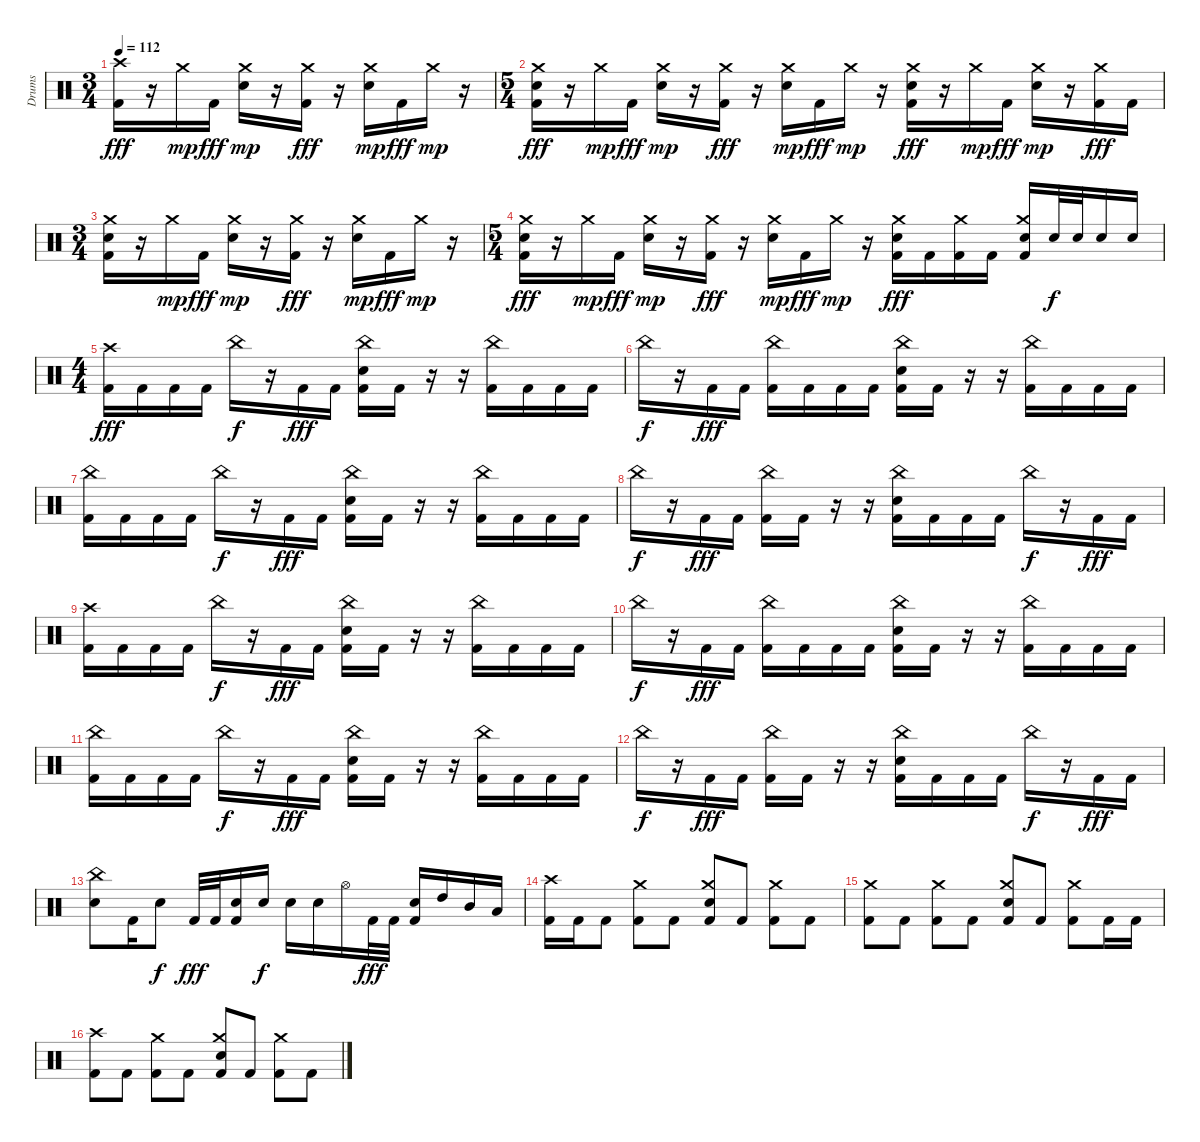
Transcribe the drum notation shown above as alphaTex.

\track ("Drums" "Drums") {instrument percussion}
\staff
\articulation defaults
\ts (3 4)
\tempo 112
\clef neutral
\ks c
("Crash high (hit)" "Kick (hit) 2").16{dy fff} r.16 "Crash medium (hit)".16{dy mp} "Kick (hit) 2".16{dy fff} ("Crash medium (hit)" "Electric Snare (hit)").16{dy mp} r.16 ("Crash medium (hit)" "Kick (hit) 2").16{dy fff} r.16 ("Crash medium (hit)" "Electric Snare (hit)").16{dy mp} "Kick (hit) 2".16{dy fff} "Crash medium (hit)".16{dy mp} r.16 |
\ts (5 4)
("Crash medium (hit)" "Electric Snare (hit)" "Kick (hit) 2").16{dy fff} r.16 "Crash medium (hit)".16{dy mp} "Kick (hit) 2".16{dy fff} ("Crash medium (hit)" "Electric Snare (hit)").16{dy mp} r.16 ("Crash medium (hit)" "Kick (hit) 2").16{dy fff} r.16 ("Crash medium (hit)" "Electric Snare (hit)").16{dy mp} "Kick (hit) 2".16{dy fff} "Crash medium (hit)".16{dy mp} r.16 ("Crash medium (hit)" "Electric Snare (hit)" "Kick (hit) 2").16{dy fff} r.16 "Crash medium (hit)".16{dy mp} "Kick (hit) 2".16{dy fff} ("Crash medium (hit)" "Electric Snare (hit)").16{dy mp} r.16 ("Crash medium (hit)" "Kick (hit) 2").16{dy fff} "Kick (hit) 2".16 |
\ts (3 4)
("Crash medium (hit)" "Electric Snare (hit)" "Kick (hit) 2").16 r.16 "Crash medium (hit)".16{dy mp} "Kick (hit) 2".16{dy fff} ("Crash medium (hit)" "Electric Snare (hit)").16{dy mp} r.16 ("Crash medium (hit)" "Kick (hit) 2").16{dy fff} r.16 ("Crash medium (hit)" "Electric Snare (hit)").16{dy mp} "Kick (hit) 2".16{dy fff} "Crash medium (hit)".16{dy mp} r.16 |
\ts (5 4)
("Crash medium (hit)" "Electric Snare (hit)" "Kick (hit) 2").16{dy fff} r.16 "Crash medium (hit)".16{dy mp} "Kick (hit) 2".16{dy fff} ("Crash medium (hit)" "Electric Snare (hit)").16{dy mp} r.16 ("Crash medium (hit)" "Kick (hit) 2").16{dy fff} r.16 ("Crash medium (hit)" "Electric Snare (hit)").16{dy mp} "Kick (hit) 2".16{dy fff} "Crash medium (hit)".16{dy mp} r.16 ("Crash medium (hit)" "Electric Snare (hit)" "Kick (hit) 2").16{dy fff} "Kick (hit) 2".16 ("Crash medium (hit)" "Kick (hit) 2").16 "Kick (hit) 2".16 ("Crash medium (hit)" "Electric Snare (hit)" "Kick (hit) 2").16 "Electric Snare (hit)".32{dy f} "Electric Snare (hit)".32 "Electric Snare (hit)".16 "Electric Snare (hit)".16 |
\ts (4 4)
("Crash high (hit)" "Kick (hit) 2").16{dy fff} "Kick (hit) 2".16 "Kick (hit) 2".16 "Kick (hit) 2".16 "China (hit)".16{dy f} r.16 "Kick (hit) 2".16{dy fff} "Kick (hit) 2".16 ("China (hit)" "Electric Snare (hit)" "Kick (hit) 2").16 "Kick (hit) 2".16 r.16 r.16 ("China (hit)" "Kick (hit) 2").16 "Kick (hit) 2".16 "Kick (hit) 2".16 "Kick (hit) 2".16 |
"China (hit)".16{dy f} r.16 "Kick (hit) 2".16{dy fff} "Kick (hit) 2".16 ("China (hit)" "Kick (hit) 2").16 "Kick (hit) 2".16 "Kick (hit) 2".16 "Kick (hit) 2".16 ("China (hit)" "Electric Snare (hit)" "Kick (hit) 2").16 "Kick (hit) 2".16 r.16 r.16 ("China (hit)" "Kick (hit) 2").16 "Kick (hit) 2".16 "Kick (hit) 2".16 "Kick (hit) 2".16 |
("China (hit)" "Kick (hit) 2").16 "Kick (hit) 2".16 "Kick (hit) 2".16 "Kick (hit) 2".16 "China (hit)".16{dy f} r.16 "Kick (hit) 2".16{dy fff} "Kick (hit) 2".16 ("China (hit)" "Electric Snare (hit)" "Kick (hit) 2").16 "Kick (hit) 2".16 r.16 r.16 ("China (hit)" "Kick (hit) 2").16 "Kick (hit) 2".16 "Kick (hit) 2".16 "Kick (hit) 2".16 |
"China (hit)".16{dy f} r.16 "Kick (hit) 2".16{dy fff} "Kick (hit) 2".16 ("China (hit)" "Kick (hit) 2").16 "Kick (hit) 2".16 r.16 r.16 ("China (hit)" "Electric Snare (hit)" "Kick (hit) 2").16 "Kick (hit) 2".16 "Kick (hit) 2".16 "Kick (hit) 2".16 "China (hit)".16{dy f} r.16 "Kick (hit) 2".16{dy fff} "Kick (hit) 2".16 |
("Crash high (hit)" "Kick (hit) 2").16 "Kick (hit) 2".16 "Kick (hit) 2".16 "Kick (hit) 2".16 "China (hit)".16{dy f} r.16 "Kick (hit) 2".16{dy fff} "Kick (hit) 2".16 ("China (hit)" "Electric Snare (hit)" "Kick (hit) 2").16 "Kick (hit) 2".16 r.16 r.16 ("China (hit)" "Kick (hit) 2").16 "Kick (hit) 2".16 "Kick (hit) 2".16 "Kick (hit) 2".16 |
"China (hit)".16{dy f} r.16 "Kick (hit) 2".16{dy fff} "Kick (hit) 2".16 ("China (hit)" "Kick (hit) 2").16 "Kick (hit) 2".16 "Kick (hit) 2".16 "Kick (hit) 2".16 ("China (hit)" "Electric Snare (hit)" "Kick (hit) 2").16 "Kick (hit) 2".16 r.16 r.16 ("China (hit)" "Kick (hit) 2").16 "Kick (hit) 2".16 "Kick (hit) 2".16 "Kick (hit) 2".16 |
("China (hit)" "Kick (hit) 2").16 "Kick (hit) 2".16 "Kick (hit) 2".16 "Kick (hit) 2".16 "China (hit)".16{dy f} r.16 "Kick (hit) 2".16{dy fff} "Kick (hit) 2".16 ("China (hit)" "Electric Snare (hit)" "Kick (hit) 2").16 "Kick (hit) 2".16 r.16 r.16 ("China (hit)" "Kick (hit) 2").16 "Kick (hit) 2".16 "Kick (hit) 2".16 "Kick (hit) 2".16 |
"China (hit)".16{dy f} r.16 "Kick (hit) 2".16{dy fff} "Kick (hit) 2".16 ("China (hit)" "Kick (hit) 2").16 "Kick (hit) 2".16 r.16 r.16 ("China (hit)" "Electric Snare (hit)" "Kick (hit) 2").16 "Kick (hit) 2".16 "Kick (hit) 2".16 "Kick (hit) 2".16 "China (hit)".16{dy f} r.16 "Kick (hit) 2".16{dy fff} "Kick (hit) 2".16 |
("China (hit)" "Electric Snare (hit)").8 "Kick (hit) 2".16 "Electric Snare (hit)".8{dy f} "Kick (hit) 2".32{dy fff} "Kick (hit) 2".32 ("Electric Snare (hit)" "Kick (hit) 2").16 "Electric Snare (hit)".16{dy f} "Electric Snare (hit)".16 "Electric Snare (hit)".16 "Hi-Hat (open)".16 "Kick (hit) 2".32{dy fff} "Kick (hit) 2".32 ("Electric Snare (hit)" "Kick (hit) 2").16 "High Tom (hit)".16 "Mid Tom (hit)".16 "Low Tom (hit)".16 |
("Crash high (hit)" "Kick (hit) 2").16 "Kick (hit) 2".16 "Kick (hit) 2".8 ("Crash medium (hit)" "Kick (hit) 2").8 "Kick (hit) 2".8 ("Crash medium (hit)" "Electric Snare (hit)" "Kick (hit) 2").8 "Kick (hit) 2".8 ("Crash medium (hit)" "Kick (hit) 2").8 "Kick (hit) 2".8 |
("Crash medium (hit)" "Kick (hit) 2").8 "Kick (hit) 2".8 ("Crash medium (hit)" "Kick (hit) 2").8 "Kick (hit) 2".8 ("Crash medium (hit)" "Electric Snare (hit)" "Kick (hit) 2").8 "Kick (hit) 2".8 ("Crash medium (hit)" "Kick (hit) 2").8 "Kick (hit) 2".16 "Kick (hit) 2".16 |
("Crash high (hit)" "Kick (hit) 2").8 "Kick (hit) 2".8 ("Crash medium (hit)" "Kick (hit) 2").8 "Kick (hit) 2".8 ("Crash medium (hit)" "Electric Snare (hit)" "Kick (hit) 2").8 "Kick (hit) 2".8 ("Crash medium (hit)" "Kick (hit) 2").8 "Kick (hit) 2".8
